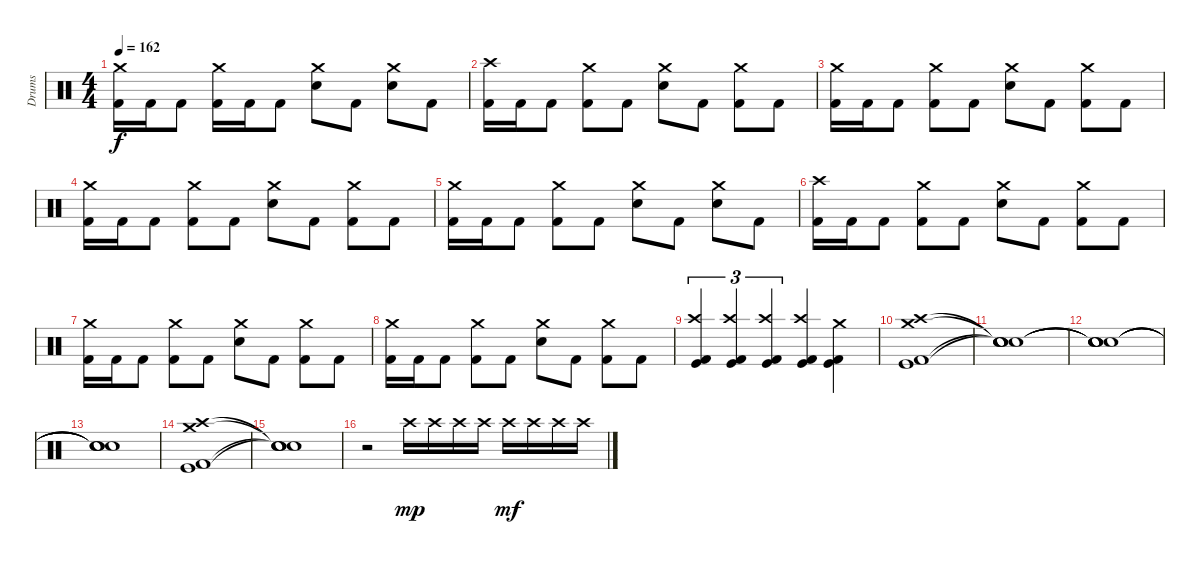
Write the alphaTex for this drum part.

\track ("Drums" "Drums") {instrument percussion}
\staff {score}
\articulation defaults
\ts (4 4)
\tempo 162
\clef neutral
\ks c
("Crash medium (hit)" "Kick (hit) 2").16{dy f} "Kick (hit) 2".16 "Kick (hit) 2".8 ("Crash medium (hit)" "Kick (hit) 2").16 "Kick (hit) 2".16 "Kick (hit) 2".8 ("Crash medium (hit)" "Electric Snare (hit)").8 "Kick (hit) 2".8 ("Crash medium (hit)" "Electric Snare (hit)").8 "Kick (hit) 2".8 |
("Crash high (hit)" "Kick (hit) 2").16 "Kick (hit) 2".16 "Kick (hit) 2".8 ("Crash medium (hit)" "Kick (hit) 2").8 "Kick (hit) 2".8 ("Crash medium (hit)" "Electric Snare (hit)").8 "Kick (hit) 2".8 ("Crash medium (hit)" "Kick (hit) 2").8 "Kick (hit) 2".8 |
("Crash medium (hit)" "Kick (hit) 2").16 "Kick (hit) 2".16 "Kick (hit) 2".8 ("Crash medium (hit)" "Kick (hit) 2").8 "Kick (hit) 2".8 ("Crash medium (hit)" "Electric Snare (hit)").8 "Kick (hit) 2".8 ("Crash medium (hit)" "Kick (hit) 2").8 "Kick (hit) 2".8 |
("Crash medium (hit)" "Kick (hit) 2").16 "Kick (hit) 2".16 "Kick (hit) 2".8 ("Crash medium (hit)" "Kick (hit) 2").8 "Kick (hit) 2".8 ("Crash medium (hit)" "Electric Snare (hit)").8 "Kick (hit) 2".8 ("Crash medium (hit)" "Kick (hit) 2").8 "Kick (hit) 2".8 |
("Crash medium (hit)" "Kick (hit) 2").16 "Kick (hit) 2".16 "Kick (hit) 2".8 ("Crash medium (hit)" "Kick (hit) 2").8 "Kick (hit) 2".8 ("Crash medium (hit)" "Electric Snare (hit)").8 "Kick (hit) 2".8 ("Crash medium (hit)" "Electric Snare (hit)").8 "Kick (hit) 2".8 |
("Crash high (hit)" "Kick (hit) 2").16 "Kick (hit) 2".16 "Kick (hit) 2".8 ("Crash medium (hit)" "Kick (hit) 2").8 "Kick (hit) 2".8 ("Crash medium (hit)" "Electric Snare (hit)").8 "Kick (hit) 2".8 ("Crash medium (hit)" "Kick (hit) 2").8 "Kick (hit) 2".8 |
("Crash medium (hit)" "Kick (hit) 2").16 "Kick (hit) 2".16 "Kick (hit) 2".8 ("Crash medium (hit)" "Kick (hit) 2").8 "Kick (hit) 2".8 ("Crash medium (hit)" "Electric Snare (hit)").8 "Kick (hit) 2".8 ("Crash medium (hit)" "Kick (hit) 2").8 "Kick (hit) 2".8 |
("Crash medium (hit)" "Kick (hit) 2").16 "Kick (hit) 2".16 "Kick (hit) 2".8 ("Crash medium (hit)" "Kick (hit) 2").8 "Kick (hit) 2".8 ("Crash medium (hit)" "Electric Snare (hit)").8 "Kick (hit) 2".8 ("Crash medium (hit)" "Kick (hit) 2").8 "Kick (hit) 2".8 |
("Crash high (hit)" "Kick (hit)" "Kick (hit) 2").4{tu (3 2)} ("Crash high (hit)" "Kick (hit)" "Kick (hit) 2").4{tu (3 2)} ("Crash high (hit)" "Kick (hit)" "Kick (hit) 2").4{tu (3 2)} ("Crash high (hit)" "Kick (hit)" "Kick (hit) 2").4 ("Crash medium (hit)" "Kick (hit)" "Kick (hit) 2").4 |
("Crash high (hit)" "Crash medium (hit)" "Kick (hit)" "Kick (hit) 2").1 |
("Snare (hit)"{t} "Snare (hit)"{t} "Snare (hit)"{t} "Snare (hit)"{t}).1 |
("Snare (hit)"{t} "Snare (hit)"{t} "Snare (hit)"{t} "Snare (hit)"{t}).1 |
("Snare (hit)"{t} "Snare (hit)"{t} "Snare (hit)"{t} "Snare (hit)"{t}).1 |
("Crash medium (hit)" "Crash high (hit)" "Kick (hit)" "Kick (hit) 2").1 |
("Snare (hit)"{t} "Snare (hit)"{t} "Snare (hit)"{t} "Snare (hit)"{t}).1 |
r.2 "Crash high (hit)".16{dy mp} "Crash high (hit)".16 "Crash high (hit)".16 "Crash high (hit)".16 "Crash high (hit)".16{dy mf} "Crash high (hit)".16 "Crash high (hit)".16 "Crash high (hit)".16
